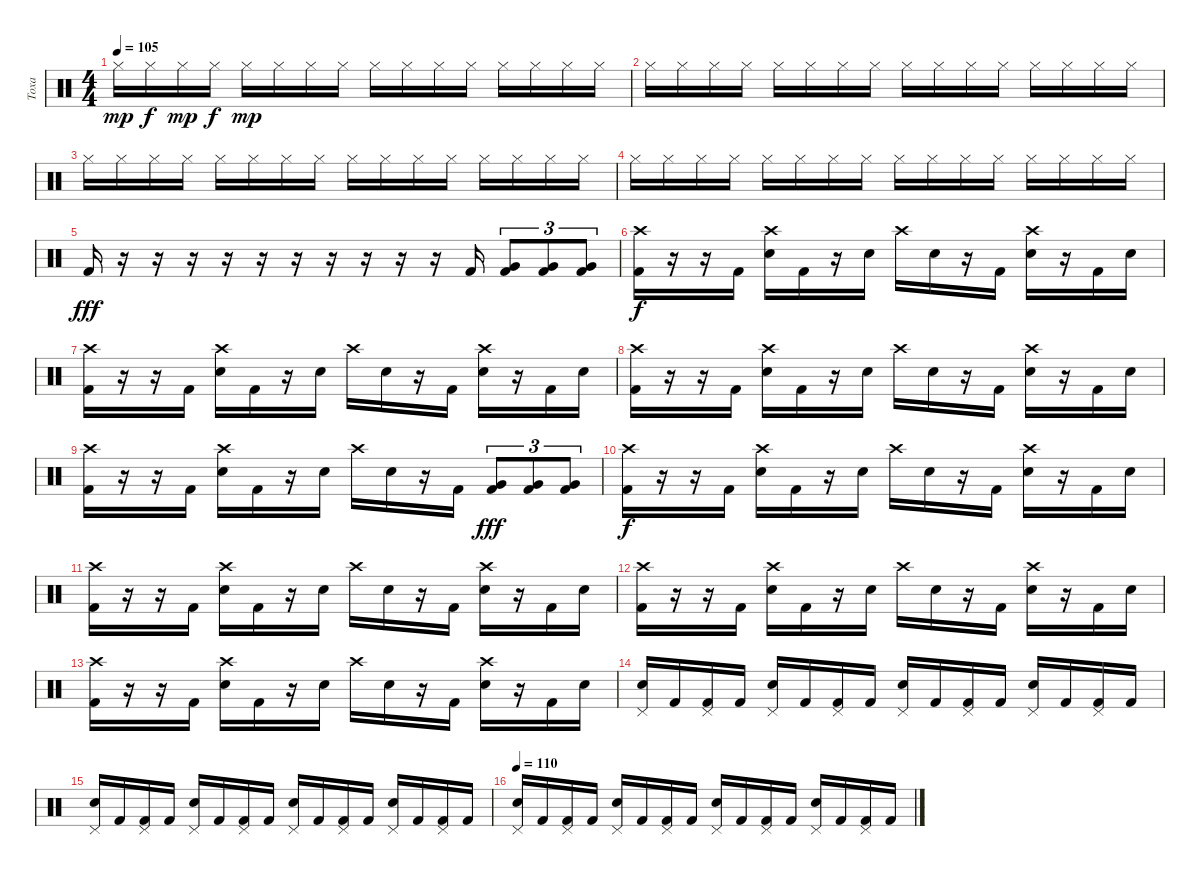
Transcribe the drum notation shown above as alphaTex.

\track ("Toxa" "Toxa") {instrument percussion}
\staff {score}
\articulation defaults
\ts (4 4)
\tempo 105
\clef neutral
\ks c "Hi-Hat (closed)".16{dy mp} "Hi-Hat (closed)".16{dy f} "Hi-Hat (closed)".16{dy mp} "Hi-Hat (closed)".16{dy f} "Hi-Hat (closed)".16{dy mp} "Hi-Hat (closed)".16 "Hi-Hat (closed)".16 "Hi-Hat (closed)".16 "Hi-Hat (closed)".16 "Hi-Hat (closed)".16 "Hi-Hat (closed)".16 "Hi-Hat (closed)".16 "Hi-Hat (closed)".16 "Hi-Hat (closed)".16 "Hi-Hat (closed)".16 "Hi-Hat (closed)".16
|
"Hi-Hat (closed)".16 "Hi-Hat (closed)".16 "Hi-Hat (closed)".16 "Hi-Hat (closed)".16 "Hi-Hat (closed)".16 "Hi-Hat (closed)".16 "Hi-Hat (closed)".16 "Hi-Hat (closed)".16 "Hi-Hat (closed)".16 "Hi-Hat (closed)".16 "Hi-Hat (closed)".16 "Hi-Hat (closed)".16 "Hi-Hat (closed)".16 "Hi-Hat (closed)".16 "Hi-Hat (closed)".16 "Hi-Hat (closed)".16 |
"Hi-Hat (closed)".16 "Hi-Hat (closed)".16 "Hi-Hat (closed)".16 "Hi-Hat (closed)".16 "Hi-Hat (closed)".16 "Hi-Hat (closed)".16 "Hi-Hat (closed)".16 "Hi-Hat (closed)".16 "Hi-Hat (closed)".16 "Hi-Hat (closed)".16 "Hi-Hat (closed)".16 "Hi-Hat (closed)".16 "Hi-Hat (closed)".16 "Hi-Hat (closed)".16 "Hi-Hat (closed)".16 "Hi-Hat (closed)".16 |
"Hi-Hat (closed)".16 "Hi-Hat (closed)".16 "Hi-Hat (closed)".16 "Hi-Hat (closed)".16 "Hi-Hat (closed)".16 "Hi-Hat (closed)".16 "Hi-Hat (closed)".16 "Hi-Hat (closed)".16 "Hi-Hat (closed)".16 "Hi-Hat (closed)".16 "Hi-Hat (closed)".16 "Hi-Hat (closed)".16 "Hi-Hat (closed)".16 "Hi-Hat (closed)".16 "Hi-Hat (closed)".16 "Hi-Hat (closed)".16 |
"Kick (hit) 2".16{dy fff} r.16 r.16 r.16 r.16 r.16 r.16 r.16 r.16 r.16 r.16 "Kick (hit) 2".16 ("Very Low Tom (hit)" "Kick (hit) 2").8{tu (3 2)} ("Very Low Tom (hit)" "Kick (hit) 2").8{tu (3 2)} ("Very Low Tom (hit)" "Kick (hit) 2").8{tu (3 2)} |
("Crash high (hit)" "Kick (hit) 2").16{dy f} r.16 r.16 "Kick (hit) 2".16 ("Crash high (hit)" "Electric Snare (hit)").16 "Kick (hit) 2".16 r.16 "Electric Snare (hit)".16 "Crash high (hit)".16 "Electric Snare (hit)".16 r.16 "Kick (hit) 2".16 ("Crash high (hit)" "Electric Snare (hit)").16 r.16 "Kick (hit) 2".16 "Electric Snare (hit)".16 |
("Crash high (hit)" "Kick (hit) 2").16 r.16 r.16 "Kick (hit) 2".16 ("Crash high (hit)" "Electric Snare (hit)").16 "Kick (hit) 2".16 r.16 "Electric Snare (hit)".16 "Crash high (hit)".16 "Electric Snare (hit)".16 r.16 "Kick (hit) 2".16 ("Crash high (hit)" "Electric Snare (hit)").16 r.16 "Kick (hit) 2".16 "Electric Snare (hit)".16 |
("Crash high (hit)" "Kick (hit) 2").16 r.16 r.16 "Kick (hit) 2".16 ("Crash high (hit)" "Electric Snare (hit)").16 "Kick (hit) 2".16 r.16 "Electric Snare (hit)".16 "Crash high (hit)".16 "Electric Snare (hit)".16 r.16 "Kick (hit) 2".16 ("Crash high (hit)" "Electric Snare (hit)").16 r.16 "Kick (hit) 2".16 "Electric Snare (hit)".16 |
("Crash high (hit)" "Kick (hit) 2").16 r.16 r.16 "Kick (hit) 2".16 ("Crash high (hit)" "Electric Snare (hit)").16 "Kick (hit) 2".16 r.16 "Electric Snare (hit)".16 "Crash high (hit)".16 "Electric Snare (hit)".16 r.16 "Kick (hit) 2".16 ("Very Low Tom (hit)" "Kick (hit) 2").8{tu (3 2) dy fff} ("Very Low Tom (hit)" "Kick (hit) 2").8{tu (3 2)} ("Very Low Tom (hit)" "Kick (hit) 2").8{tu (3 2)} |
("Crash high (hit)" "Kick (hit) 2").16{dy f} r.16 r.16 "Kick (hit) 2".16 ("Crash high (hit)" "Electric Snare (hit)").16 "Kick (hit) 2".16 r.16 "Electric Snare (hit)".16 "Crash high (hit)".16 "Electric Snare (hit)".16 r.16 "Kick (hit) 2".16 ("Crash high (hit)" "Electric Snare (hit)").16 r.16 "Kick (hit) 2".16 "Electric Snare (hit)".16 |
("Crash high (hit)" "Kick (hit) 2").16 r.16 r.16 "Kick (hit) 2".16 ("Crash high (hit)" "Electric Snare (hit)").16 "Kick (hit) 2".16 r.16 "Electric Snare (hit)".16 "Crash high (hit)".16 "Electric Snare (hit)".16 r.16 "Kick (hit) 2".16 ("Crash high (hit)" "Electric Snare (hit)").16 r.16 "Kick (hit) 2".16 "Electric Snare (hit)".16 |
("Crash high (hit)" "Kick (hit) 2").16 r.16 r.16 "Kick (hit) 2".16 ("Crash high (hit)" "Electric Snare (hit)").16 "Kick (hit) 2".16 r.16 "Electric Snare (hit)".16 "Crash high (hit)".16 "Electric Snare (hit)".16 r.16 "Kick (hit) 2".16 ("Crash high (hit)" "Electric Snare (hit)").16 r.16 "Kick (hit) 2".16 "Electric Snare (hit)".16 |
("Crash high (hit)" "Kick (hit) 2").16 r.16 r.16 "Kick (hit) 2".16 ("Crash high (hit)" "Electric Snare (hit)").16 "Kick (hit) 2".16 r.16 "Electric Snare (hit)".16 "Crash high (hit)".16 "Electric Snare (hit)".16 r.16 "Kick (hit) 2".16 ("Crash high (hit)" "Electric Snare (hit)").16 r.16 "Kick (hit) 2".16 "Electric Snare (hit)".16 |
("Pedal Hi-Hat (hit)" "Electric Snare (hit)").16 "Kick (hit) 2".16 ("Pedal Hi-Hat (hit)" "Kick (hit) 2").16 "Kick (hit) 2".16 ("Pedal Hi-Hat (hit)" "Electric Snare (hit)").16 "Kick (hit) 2".16 ("Pedal Hi-Hat (hit)" "Kick (hit) 2").16 "Kick (hit) 2".16 ("Pedal Hi-Hat (hit)" "Electric Snare (hit)").16 "Kick (hit) 2".16 ("Pedal Hi-Hat (hit)" "Kick (hit) 2").16 "Kick (hit) 2".16 ("Pedal Hi-Hat (hit)" "Electric Snare (hit)").16 "Kick (hit) 2".16 ("Pedal Hi-Hat (hit)" "Kick (hit) 2").16 "Kick (hit) 2".16 |
("Pedal Hi-Hat (hit)" "Electric Snare (hit)").16 "Kick (hit) 2".16 ("Pedal Hi-Hat (hit)" "Kick (hit) 2").16 "Kick (hit) 2".16 ("Pedal Hi-Hat (hit)" "Electric Snare (hit)").16 "Kick (hit) 2".16 ("Pedal Hi-Hat (hit)" "Kick (hit) 2").16 "Kick (hit) 2".16 ("Pedal Hi-Hat (hit)" "Electric Snare (hit)").16 "Kick (hit) 2".16 ("Pedal Hi-Hat (hit)" "Kick (hit) 2").16 "Kick (hit) 2".16 ("Pedal Hi-Hat (hit)" "Electric Snare (hit)").16 "Kick (hit) 2".16 ("Pedal Hi-Hat (hit)" "Kick (hit) 2").16 "Kick (hit) 2".16 |
\tempo 110
("Pedal Hi-Hat (hit)" "Electric Snare (hit)").16 "Kick (hit) 2".16 ("Pedal Hi-Hat (hit)" "Kick (hit) 2").16 "Kick (hit) 2".16 ("Pedal Hi-Hat (hit)" "Electric Snare (hit)").16 "Kick (hit) 2".16 ("Pedal Hi-Hat (hit)" "Kick (hit) 2").16 "Kick (hit) 2".16 ("Pedal Hi-Hat (hit)" "Electric Snare (hit)").16 "Kick (hit) 2".16 ("Pedal Hi-Hat (hit)" "Kick (hit) 2").16 "Kick (hit) 2".16 ("Pedal Hi-Hat (hit)" "Electric Snare (hit)").16 "Kick (hit) 2".16 ("Pedal Hi-Hat (hit)" "Kick (hit) 2").16 "Kick (hit) 2".16
